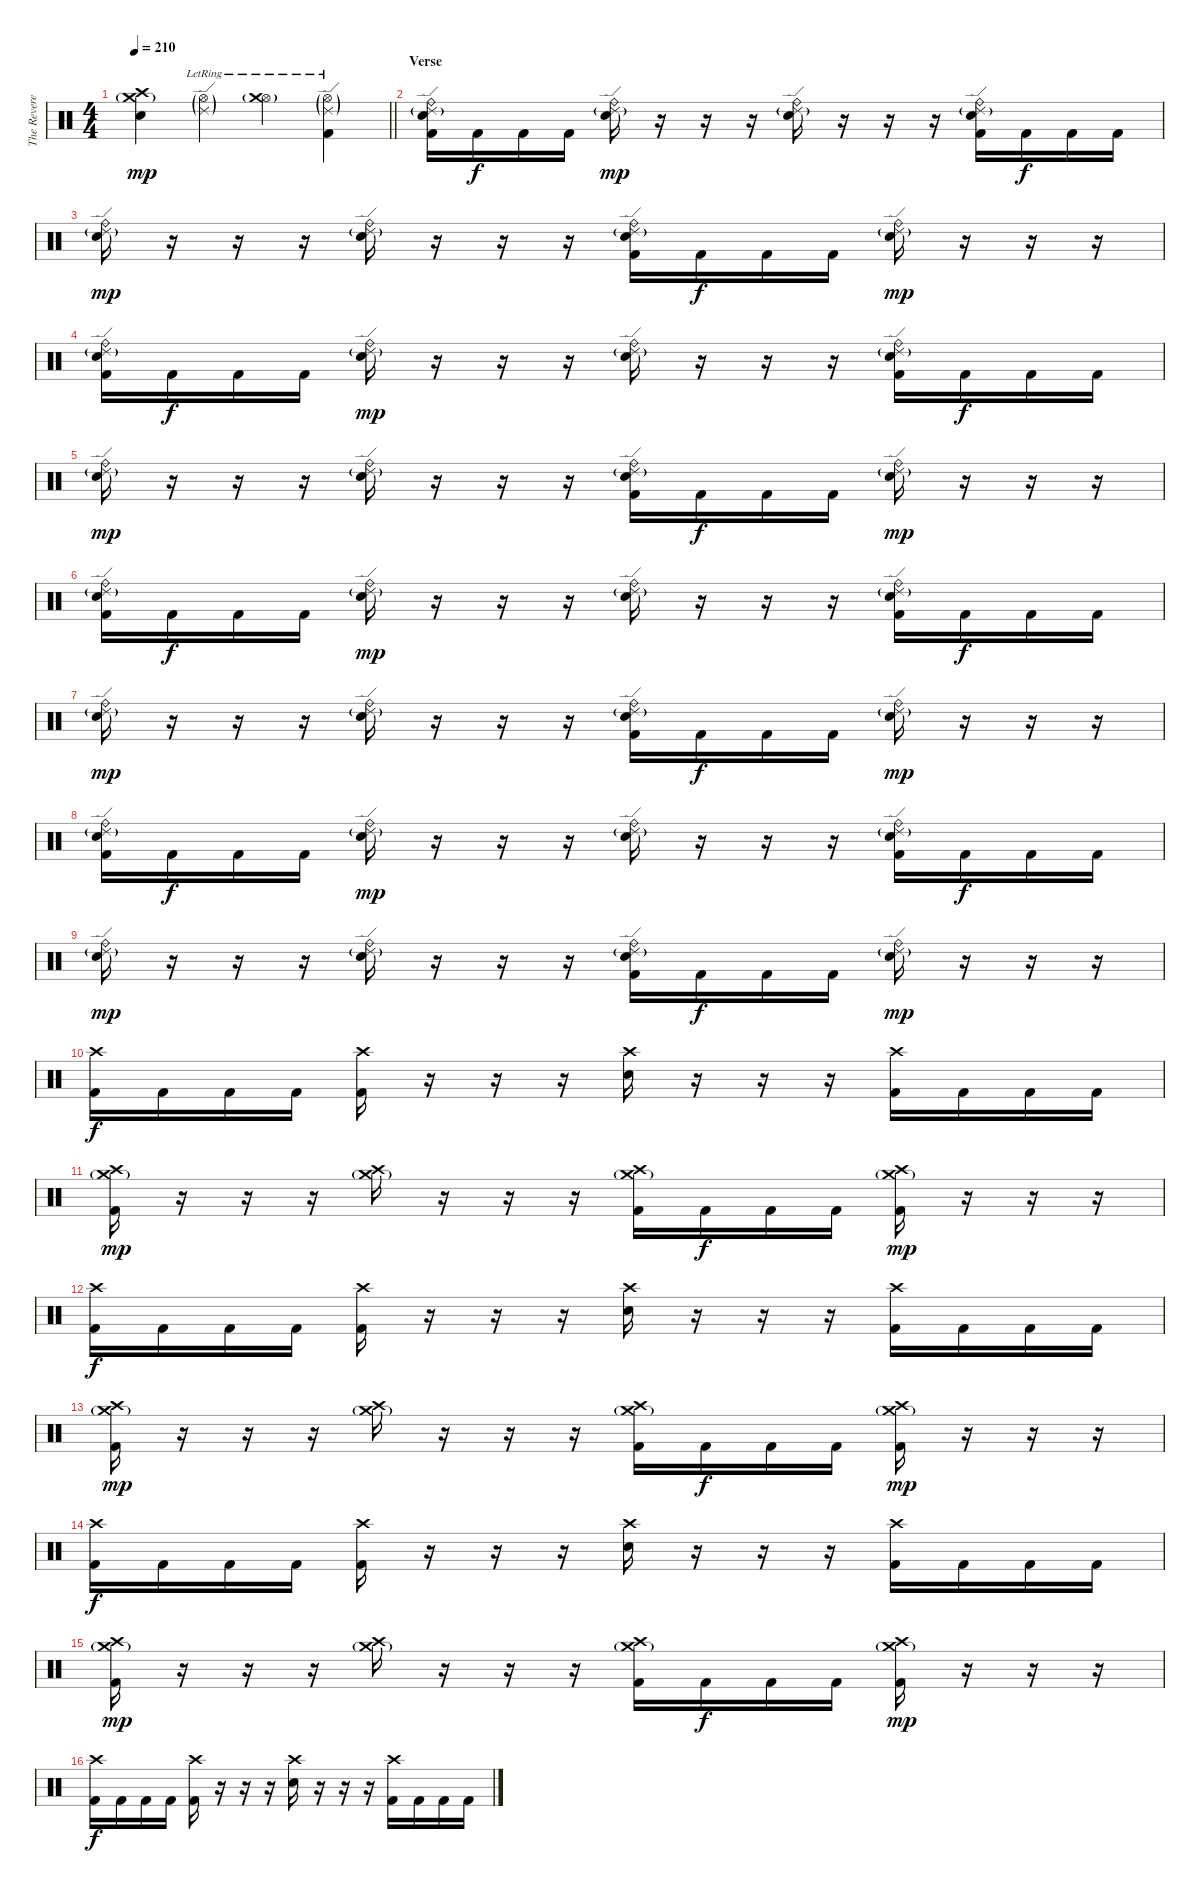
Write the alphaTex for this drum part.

\track ("The Reverend" "The Revere") {instrument percussion}
\staff {score}
\articulation defaults
\ts (4 4)
\tempo 210
\clef neutral
\barLineRight lightlight
\ks c
("Crash medium (hit)"{g} "Crash high (hit)" "Electric Snare (hit)").4{dy mp} ("Hi-Hat (open)"{g} "Ride (edge) 2"{g lr}).4 ("Hi-Hat (open)"{g} "Crash medium (hit)"{lr}).4 ("Hi-Hat (open)"{g} "Ride (edge) 2"{g lr} "Kick (hit) 2").4 |
\section ("" "Verse")
("Ride (edge) 2"{g} "Ride (bell)" "Electric Snare (hit)" "Kick (hit) 2").16 "Kick (hit) 2".16{dy f} "Kick (hit) 2".16 "Kick (hit) 2".16 ("Ride (edge) 2"{g} "Ride (bell)" "Electric Snare (hit)").16{dy mp} r.16 r.16 r.16 ("Ride (edge) 2"{g} "Ride (bell)" "Electric Snare (hit)").16 r.16 r.16 r.16 ("Ride (edge) 2"{g} "Ride (bell)" "Electric Snare (hit)" "Kick (hit) 2").16 "Kick (hit) 2".16{dy f} "Kick (hit) 2".16 "Kick (hit) 2".16 |
("Ride (edge) 2"{g} "Ride (bell)" "Electric Snare (hit)").16{dy mp} r.16 r.16 r.16 ("Ride (edge) 2"{g} "Ride (bell)" "Electric Snare (hit)").16 r.16 r.16 r.16 ("Ride (edge) 2"{g} "Ride (bell)" "Electric Snare (hit)" "Kick (hit) 2").16 "Kick (hit) 2".16{dy f} "Kick (hit) 2".16 "Kick (hit) 2".16 ("Ride (edge) 2"{g} "Ride (bell)" "Electric Snare (hit)").16{dy mp} r.16 r.16 r.16 |
("Ride (edge) 2"{g} "Ride (bell)" "Electric Snare (hit)" "Kick (hit) 2").16 "Kick (hit) 2".16{dy f} "Kick (hit) 2".16 "Kick (hit) 2".16 ("Ride (edge) 2"{g} "Ride (bell)" "Electric Snare (hit)").16{dy mp} r.16 r.16 r.16 ("Ride (edge) 2"{g} "Ride (bell)" "Electric Snare (hit)").16 r.16 r.16 r.16 ("Ride (edge) 2"{g} "Ride (bell)" "Electric Snare (hit)" "Kick (hit) 2").16 "Kick (hit) 2".16{dy f} "Kick (hit) 2".16 "Kick (hit) 2".16 |
("Ride (edge) 2"{g} "Ride (bell)" "Electric Snare (hit)").16{dy mp} r.16 r.16 r.16 ("Ride (edge) 2"{g} "Ride (bell)" "Electric Snare (hit)").16 r.16 r.16 r.16 ("Ride (edge) 2"{g} "Ride (bell)" "Electric Snare (hit)" "Kick (hit) 2").16 "Kick (hit) 2".16{dy f} "Kick (hit) 2".16 "Kick (hit) 2".16 ("Ride (edge) 2"{g} "Ride (bell)" "Electric Snare (hit)").16{dy mp} r.16 r.16 r.16 |
("Ride (edge) 2"{g} "Ride (bell)" "Electric Snare (hit)" "Kick (hit) 2").16 "Kick (hit) 2".16{dy f} "Kick (hit) 2".16 "Kick (hit) 2".16 ("Ride (edge) 2"{g} "Ride (bell)" "Electric Snare (hit)").16{dy mp} r.16 r.16 r.16 ("Ride (edge) 2"{g} "Ride (bell)" "Electric Snare (hit)").16 r.16 r.16 r.16 ("Ride (edge) 2"{g} "Ride (bell)" "Electric Snare (hit)" "Kick (hit) 2").16 "Kick (hit) 2".16{dy f} "Kick (hit) 2".16 "Kick (hit) 2".16 |
("Ride (edge) 2"{g} "Ride (bell)" "Electric Snare (hit)").16{dy mp} r.16 r.16 r.16 ("Ride (edge) 2"{g} "Ride (bell)" "Electric Snare (hit)").16 r.16 r.16 r.16 ("Ride (edge) 2"{g} "Ride (bell)" "Electric Snare (hit)" "Kick (hit) 2").16 "Kick (hit) 2".16{dy f} "Kick (hit) 2".16 "Kick (hit) 2".16 ("Ride (edge) 2"{g} "Ride (bell)" "Electric Snare (hit)").16{dy mp} r.16 r.16 r.16 |
("Ride (edge) 2"{g} "Ride (bell)" "Electric Snare (hit)" "Kick (hit) 2").16 "Kick (hit) 2".16{dy f} "Kick (hit) 2".16 "Kick (hit) 2".16 ("Ride (edge) 2"{g} "Ride (bell)" "Electric Snare (hit)").16{dy mp} r.16 r.16 r.16 ("Ride (edge) 2"{g} "Ride (bell)" "Electric Snare (hit)").16 r.16 r.16 r.16 ("Ride (edge) 2"{g} "Ride (bell)" "Electric Snare (hit)" "Kick (hit) 2").16 "Kick (hit) 2".16{dy f} "Kick (hit) 2".16 "Kick (hit) 2".16 |
("Ride (edge) 2"{g} "Ride (bell)" "Electric Snare (hit)").16{dy mp} r.16 r.16 r.16 ("Ride (edge) 2"{g} "Ride (bell)" "Electric Snare (hit)").16 r.16 r.16 r.16 ("Ride (edge) 2"{g} "Ride (bell)" "Electric Snare (hit)" "Kick (hit) 2").16 "Kick (hit) 2".16{dy f} "Kick (hit) 2".16 "Kick (hit) 2".16 ("Ride (edge) 2"{g} "Ride (bell)" "Electric Snare (hit)").16{dy mp} r.16 r.16 r.16 |
("Crash high (hit)" "Kick (hit) 2").16{dy f} "Kick (hit) 2".16 "Kick (hit) 2".16 "Kick (hit) 2".16 ("Crash high (hit)" "Kick (hit) 2").16 r.16 r.16 r.16 ("Crash high (hit)" "Electric Snare (hit)").16 r.16 r.16 r.16 ("Crash high (hit)" "Kick (hit) 2").16 "Kick (hit) 2".16 "Kick (hit) 2".16 "Kick (hit) 2".16 |
("Crash high (hit)" "Crash medium (hit)"{g} "Kick (hit) 2").16{dy mp} r.16 r.16 r.16 ("Crash high (hit)" "Crash medium (hit)"{g}).16 r.16 r.16 r.16 ("Crash high (hit)" "Crash medium (hit)"{g} "Kick (hit) 2").16 "Kick (hit) 2".16{dy f} "Kick (hit) 2".16 "Kick (hit) 2".16 ("Crash high (hit)" "Crash medium (hit)"{g} "Kick (hit) 2").16{dy mp} r.16 r.16 r.16 |
("Crash high (hit)" "Kick (hit) 2").16{dy f} "Kick (hit) 2".16 "Kick (hit) 2".16 "Kick (hit) 2".16 ("Crash high (hit)" "Kick (hit) 2").16 r.16 r.16 r.16 ("Crash high (hit)" "Electric Snare (hit)").16 r.16 r.16 r.16 ("Crash high (hit)" "Kick (hit) 2").16 "Kick (hit) 2".16 "Kick (hit) 2".16 "Kick (hit) 2".16 |
("Crash high (hit)" "Crash medium (hit)"{g} "Kick (hit) 2").16{dy mp} r.16 r.16 r.16 ("Crash high (hit)" "Crash medium (hit)"{g}).16 r.16 r.16 r.16 ("Crash high (hit)" "Crash medium (hit)"{g} "Kick (hit) 2").16 "Kick (hit) 2".16{dy f} "Kick (hit) 2".16 "Kick (hit) 2".16 ("Crash high (hit)" "Crash medium (hit)"{g} "Kick (hit) 2").16{dy mp} r.16 r.16 r.16 |
("Crash high (hit)" "Kick (hit) 2").16{dy f} "Kick (hit) 2".16 "Kick (hit) 2".16 "Kick (hit) 2".16 ("Crash high (hit)" "Kick (hit) 2").16 r.16 r.16 r.16 ("Crash high (hit)" "Electric Snare (hit)").16 r.16 r.16 r.16 ("Crash high (hit)" "Kick (hit) 2").16 "Kick (hit) 2".16 "Kick (hit) 2".16 "Kick (hit) 2".16 |
("Crash high (hit)" "Crash medium (hit)"{g} "Kick (hit) 2").16{dy mp} r.16 r.16 r.16 ("Crash high (hit)" "Crash medium (hit)"{g}).16 r.16 r.16 r.16 ("Crash high (hit)" "Crash medium (hit)"{g} "Kick (hit) 2").16 "Kick (hit) 2".16{dy f} "Kick (hit) 2".16 "Kick (hit) 2".16 ("Crash high (hit)" "Crash medium (hit)"{g} "Kick (hit) 2").16{dy mp} r.16 r.16 r.16 |
("Crash high (hit)" "Kick (hit) 2").16{dy f} "Kick (hit) 2".16 "Kick (hit) 2".16 "Kick (hit) 2".16 ("Crash high (hit)" "Kick (hit) 2").16 r.16 r.16 r.16 ("Crash high (hit)" "Electric Snare (hit)").16 r.16 r.16 r.16 ("Crash high (hit)" "Kick (hit) 2").16 "Kick (hit) 2".16 "Kick (hit) 2".16 "Kick (hit) 2".16
